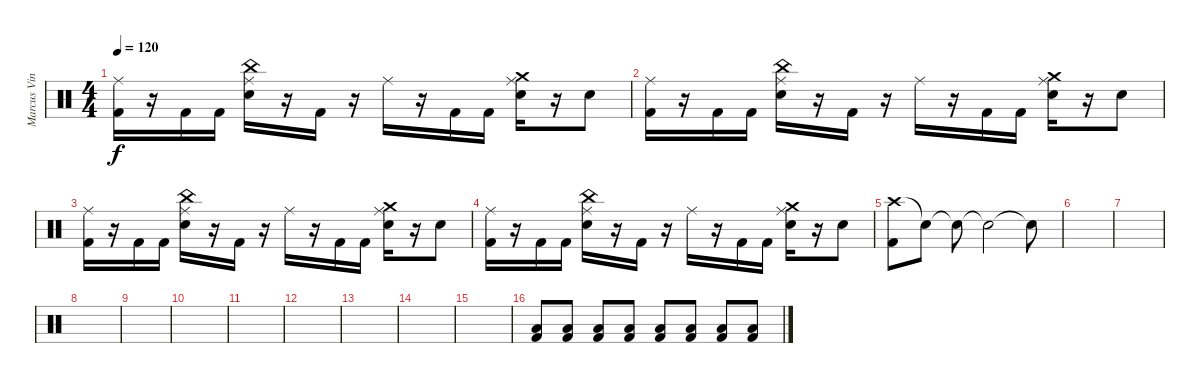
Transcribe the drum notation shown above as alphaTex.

\track ("Marcus Vinicius" "Marcus Vin") {instrument percussion}
\staff {score}
\articulation defaults
\ts (4 4)
\tempo 120
\clef neutral
\ks c
("Kick (hit) 2" "Ride (middle)").16{dy f} r.16 "Kick (hit) 2".16 "Kick (hit) 2".16 ("Electric Snare (hit)" "Ride (middle)" "China (hit)").16 r.16 "Kick (hit) 2".16 r.16 "Ride (middle)".16 r.16 "Kick (hit) 2".16 "Kick (hit) 2".16 ("Electric Snare (hit)" "Ride (middle)" "Crash medium (hit)").16 r.16 "Electric Snare (hit)".8 |
("Kick (hit) 2" "Ride (middle)").16 r.16 "Kick (hit) 2".16 "Kick (hit) 2".16 ("Electric Snare (hit)" "Ride (middle)" "China (hit)").16 r.16 "Kick (hit) 2".16 r.16 "Ride (middle)".16 r.16 "Kick (hit) 2".16 "Kick (hit) 2".16 ("Electric Snare (hit)" "Ride (middle)" "Crash medium (hit)").16 r.16 "Electric Snare (hit)".8 |
("Kick (hit) 2" "Ride (middle)").16 r.16 "Kick (hit) 2".16 "Kick (hit) 2".16 ("Electric Snare (hit)" "Ride (middle)" "China (hit)").16 r.16 "Kick (hit) 2".16 r.16 "Ride (middle)".16 r.16 "Kick (hit) 2".16 "Kick (hit) 2".16 ("Electric Snare (hit)" "Ride (middle)" "Crash medium (hit)").16 r.16 "Electric Snare (hit)".8 |
("Kick (hit) 2" "Ride (middle)").16 r.16 "Kick (hit) 2".16 "Kick (hit) 2".16 ("Electric Snare (hit)" "Ride (middle)" "China (hit)").16 r.16 "Kick (hit) 2".16 r.16 "Ride (middle)".16 r.16 "Kick (hit) 2".16 "Kick (hit) 2".16 ("Electric Snare (hit)" "Ride (middle)" "Crash medium (hit)").16 r.16 "Electric Snare (hit)".8 |
("Crash high (hit)" "Kick (hit) 2").8 "Snare (hit)"{t}.8 "Snare (hit)"{t}.8 "Snare (hit)"{t}.2 "Snare (hit)"{t}.8 |
|
|
|
|
|
|
|
|
|
|
("Low Tom (hit)" "Kick (hit) 2").8 ("Low Tom (hit)" "Kick (hit) 2").8 ("Low Tom (hit)" "Kick (hit) 2").8 ("Low Tom (hit)" "Kick (hit) 2").8 ("Low Tom (hit)" "Kick (hit) 2").8 ("Low Tom (hit)" "Kick (hit) 2").8 ("Low Tom (hit)" "Kick (hit) 2").8 ("Low Tom (hit)" "Kick (hit) 2").8
